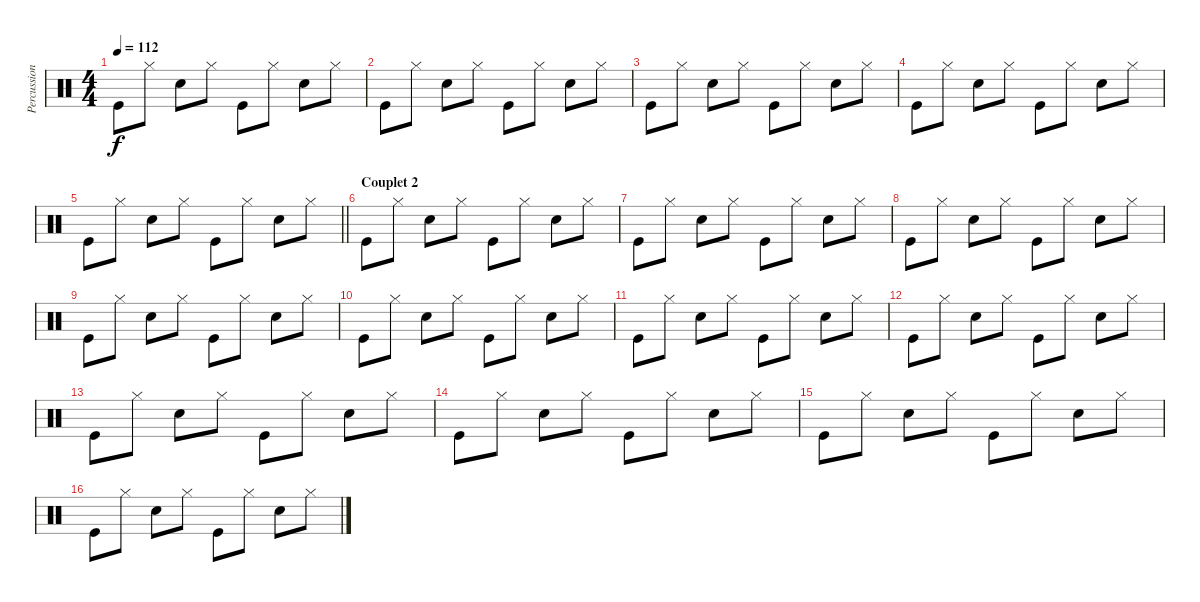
\track ("Percussions" "Percussion") {instrument percussion}
\staff {score}
\articulation defaults
\ts (4 4)
\tempo 112
\clef neutral
\ks c "Kick (hit)".8{dy f} "Hi-Hat (closed)".8 "Snare (hit) 2".8 "Hi-Hat (closed)".8 "Kick (hit)".8 "Hi-Hat (closed)".8 "Snare (hit) 2".8 "Hi-Hat (closed)".8
|
"Kick (hit)".8 "Hi-Hat (closed)".8 "Snare (hit) 2".8 "Hi-Hat (closed)".8 "Kick (hit)".8 "Hi-Hat (closed)".8 "Snare (hit) 2".8 "Hi-Hat (closed)".8 |
"Kick (hit)".8 "Hi-Hat (closed)".8 "Snare (hit) 2".8 "Hi-Hat (closed)".8 "Kick (hit)".8 "Hi-Hat (closed)".8 "Snare (hit) 2".8 "Hi-Hat (closed)".8 |
"Kick (hit)".8 "Hi-Hat (closed)".8 "Snare (hit) 2".8 "Hi-Hat (closed)".8 "Kick (hit)".8 "Hi-Hat (closed)".8 "Snare (hit) 2".8 "Hi-Hat (closed)".8 |
\barLineRight lightlight "Kick (hit)".8 "Hi-Hat (closed)".8 "Snare (hit) 2".8 "Hi-Hat (closed)".8 "Kick (hit)".8 "Hi-Hat (closed)".8 "Snare (hit) 2".8 "Hi-Hat (closed)".8
|
\section ("" "Couplet 2")
"Kick (hit)".8 "Hi-Hat (closed)".8 "Snare (hit) 2".8 "Hi-Hat (closed)".8 "Kick (hit)".8 "Hi-Hat (closed)".8 "Snare (hit) 2".8 "Hi-Hat (closed)".8 |
"Kick (hit)".8 "Hi-Hat (closed)".8 "Snare (hit) 2".8 "Hi-Hat (closed)".8 "Kick (hit)".8 "Hi-Hat (closed)".8 "Snare (hit) 2".8 "Hi-Hat (closed)".8 |
"Kick (hit)".8 "Hi-Hat (closed)".8 "Snare (hit) 2".8 "Hi-Hat (closed)".8 "Kick (hit)".8 "Hi-Hat (closed)".8 "Snare (hit) 2".8 "Hi-Hat (closed)".8 |
"Kick (hit)".8 "Hi-Hat (closed)".8 "Snare (hit) 2".8 "Hi-Hat (closed)".8 "Kick (hit)".8 "Hi-Hat (closed)".8 "Snare (hit) 2".8 "Hi-Hat (closed)".8 |
"Kick (hit)".8 "Hi-Hat (closed)".8 "Snare (hit) 2".8 "Hi-Hat (closed)".8 "Kick (hit)".8 "Hi-Hat (closed)".8 "Snare (hit) 2".8 "Hi-Hat (closed)".8 |
"Kick (hit)".8 "Hi-Hat (closed)".8 "Snare (hit) 2".8 "Hi-Hat (closed)".8 "Kick (hit)".8 "Hi-Hat (closed)".8 "Snare (hit) 2".8 "Hi-Hat (closed)".8 |
"Kick (hit)".8 "Hi-Hat (closed)".8 "Snare (hit) 2".8 "Hi-Hat (closed)".8 "Kick (hit)".8 "Hi-Hat (closed)".8 "Snare (hit) 2".8 "Hi-Hat (closed)".8 |
"Kick (hit)".8 "Hi-Hat (closed)".8 "Snare (hit) 2".8 "Hi-Hat (closed)".8 "Kick (hit)".8 "Hi-Hat (closed)".8 "Snare (hit) 2".8 "Hi-Hat (closed)".8 |
"Kick (hit)".8 "Hi-Hat (closed)".8 "Snare (hit) 2".8 "Hi-Hat (closed)".8 "Kick (hit)".8 "Hi-Hat (closed)".8 "Snare (hit) 2".8 "Hi-Hat (closed)".8 |
"Kick (hit)".8 "Hi-Hat (closed)".8 "Snare (hit) 2".8 "Hi-Hat (closed)".8 "Kick (hit)".8 "Hi-Hat (closed)".8 "Snare (hit) 2".8 "Hi-Hat (closed)".8 |
"Kick (hit)".8 "Hi-Hat (closed)".8 "Snare (hit) 2".8 "Hi-Hat (closed)".8 "Kick (hit)".8 "Hi-Hat (closed)".8 "Snare (hit) 2".8 "Hi-Hat (closed)".8
